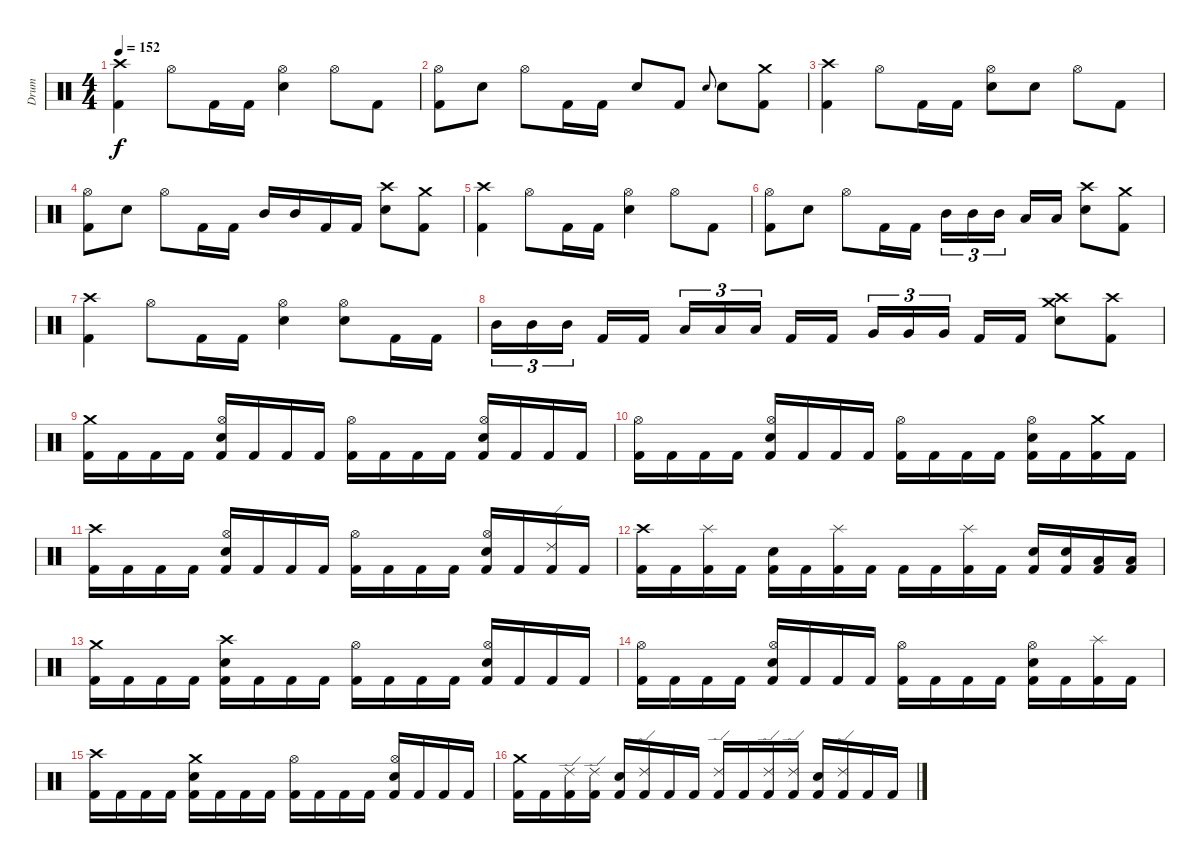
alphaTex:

\track ("Drum" "Drum") {instrument percussion}
\staff {score}
\articulation defaults
\ts (4 4)
\tempo 152
\clef neutral
\ks c
("Crash high (hit)" "Kick (hit) 2").4{dy f} "Hi-Hat (open)".8 "Kick (hit) 2".16 "Kick (hit) 2".16 ("Hi-Hat (open)" "Snare (hit) 2").4 "Hi-Hat (open)".8 "Kick (hit) 2".8 |
("Hi-Hat (open)" "Kick (hit) 2").8 "Snare (hit) 2".8 "Hi-Hat (open)".8 "Kick (hit) 2".16 "Kick (hit) 2".16 "Snare (hit) 2".8 "Kick (hit) 2".8 "Snare (hit) 2".8{gr onbeat} "Snare (hit) 2".8 ("Crash medium (hit)" "Kick (hit) 2").8 |
("Crash high (hit)" "Kick (hit) 2").4 "Hi-Hat (open)".8 "Kick (hit) 2".16 "Kick (hit) 2".16 ("Hi-Hat (open)" "Snare (hit) 2").8 "Snare (hit) 2".8 "Hi-Hat (open)".8 "Kick (hit) 2".8 |
("Hi-Hat (open)" "Kick (hit) 2").8 "Snare (hit) 2".8 "Hi-Hat (open)".8 "Kick (hit) 2".16 "Kick (hit) 2".16 "Mid Tom (hit)".16 "Mid Tom (hit)".16 "Kick (hit) 2".16 "Kick (hit) 2".16 ("Crash high (hit)" "Snare (hit) 2").8 ("Crash medium (hit)" "Kick (hit) 2").8 |
("Crash high (hit)" "Kick (hit) 2").4 "Hi-Hat (open)".8 "Kick (hit) 2".16 "Kick (hit) 2".16 ("Hi-Hat (open)" "Snare (hit) 2").4 "Hi-Hat (open)".8 "Kick (hit) 2".8 |
("Hi-Hat (open)" "Kick (hit) 2").8 "Snare (hit) 2".8 "Hi-Hat (open)".8 "Kick (hit) 2".16 "Kick (hit) 2".16 "Mid Tom (hit)".16{tu (3 2)} "Mid Tom (hit)".16{tu (3 2)} "Mid Tom (hit)".16{tu (3 2) beam splitsecondary} "Low Tom (hit)".16 "Low Tom (hit)".16 ("Crash high (hit)" "Snare (hit) 2").8 ("Crash medium (hit)" "Kick (hit) 2").8 |
("Crash high (hit)" "Kick (hit) 2").4 "Hi-Hat (open)".8 "Kick (hit) 2".16 "Kick (hit) 2".16 ("Hi-Hat (open)" "Snare (hit) 2").4 ("Hi-Hat (open)" "Snare (hit) 2").8 "Kick (hit) 2".16 "Kick (hit) 2".16 |
"Mid Tom (hit)".16{tu (3 2)} "Mid Tom (hit)".16{tu (3 2)} "Mid Tom (hit)".16{tu (3 2) beam splitsecondary} "Kick (hit) 2".16 "Kick (hit) 2".16 "Low Tom (hit)".16{tu (3 2)} "Low Tom (hit)".16{tu (3 2)} "Low Tom (hit)".16{tu (3 2) beam splitsecondary} "Kick (hit) 2".16 "Kick (hit) 2".16 "Very Low Tom (hit)".16{tu (3 2)} "Very Low Tom (hit)".16{tu (3 2)} "Very Low Tom (hit)".16{tu (3 2) beam splitsecondary} "Kick (hit) 2".16 "Kick (hit) 2".16 ("Crash medium (hit)" "Crash high (hit)" "Snare (hit) 2").8 ("Crash high (hit)" "Kick (hit) 2").8 |
("Crash medium (hit)" "Kick (hit) 2").16 "Kick (hit) 2".16 "Kick (hit) 2".16 "Kick (hit) 2".16 ("Hi-Hat (open)" "Snare (hit) 2" "Kick (hit) 2").16 "Kick (hit) 2".16 "Kick (hit) 2".16 "Kick (hit) 2".16 ("Hi-Hat (open)" "Kick (hit) 2").16 "Kick (hit) 2".16 "Kick (hit) 2".16 "Kick (hit) 2".16 ("Hi-Hat (open)" "Snare (hit) 2" "Kick (hit) 2").16 "Kick (hit) 2".16 "Kick (hit) 2".16 "Kick (hit) 2".16 |
("Hi-Hat (open)" "Kick (hit) 2").16 "Kick (hit) 2".16 "Kick (hit) 2".16 "Kick (hit) 2".16 ("Hi-Hat (open)" "Snare (hit) 2" "Kick (hit) 2").16 "Kick (hit) 2".16 "Kick (hit) 2".16 "Kick (hit) 2".16 ("Hi-Hat (open)" "Kick (hit) 2").16 "Kick (hit) 2".16 "Kick (hit) 2".16 "Kick (hit) 2".16 ("Hi-Hat (open)" "Snare (hit) 2" "Kick (hit) 2").16 "Kick (hit) 2".16 ("Crash medium (hit)" "Kick (hit) 2").16 "Kick (hit) 2".16 |
("Crash high (hit)" "Kick (hit) 2").16 "Kick (hit) 2".16 "Kick (hit) 2".16 "Kick (hit) 2".16 ("Hi-Hat (open)" "Snare (hit) 2" "Kick (hit) 2").16 "Kick (hit) 2".16 "Kick (hit) 2".16 "Kick (hit) 2".16 ("Hi-Hat (open)" "Kick (hit) 2").16 "Kick (hit) 2".16 "Kick (hit) 2".16 "Kick (hit) 2".16 ("Hi-Hat (open)" "Snare (hit) 2" "Kick (hit) 2").16 "Kick (hit) 2".16 ("Ride (edge) 2" "Kick (hit) 2").16 "Kick (hit) 2".16 |
("Crash high (hit)" "Kick (hit) 2").16 "Kick (hit) 2".16 ("Splash (hit)" "Kick (hit) 2").16 "Kick (hit) 2".16 ("Snare (hit) 2" "Kick (hit) 2").16 "Kick (hit) 2".16 ("Splash (hit)" "Kick (hit) 2").16 "Kick (hit) 2".16 "Kick (hit) 2".16 "Kick (hit) 2".16 ("Splash (hit)" "Kick (hit) 2").16 "Kick (hit) 2".16 ("Snare (hit) 2" "Kick (hit) 2").16 ("Snare (hit) 2" "Kick (hit) 2").16 ("Low Tom (hit)" "Kick (hit) 2").16 ("Low Tom (hit)" "Kick (hit) 2").16 |
("Crash medium (hit)" "Kick (hit) 2").16 "Kick (hit) 2".16 "Kick (hit) 2".16 "Kick (hit) 2".16 ("Crash high (hit)" "Snare (hit) 2" "Kick (hit) 2").16 "Kick (hit) 2".16 "Kick (hit) 2".16 "Kick (hit) 2".16 ("Hi-Hat (open)" "Kick (hit) 2").16 "Kick (hit) 2".16 "Kick (hit) 2".16 "Kick (hit) 2".16 ("Hi-Hat (open)" "Snare (hit) 2" "Kick (hit) 2").16 "Kick (hit) 2".16 "Kick (hit) 2".16 "Kick (hit) 2".16 |
("Hi-Hat (open)" "Kick (hit) 2").16 "Kick (hit) 2".16 "Kick (hit) 2".16 "Kick (hit) 2".16 ("Hi-Hat (open)" "Snare (hit) 2" "Kick (hit) 2").16 "Kick (hit) 2".16 "Kick (hit) 2".16 "Kick (hit) 2".16 ("Hi-Hat (open)" "Kick (hit) 2").16 "Kick (hit) 2".16 "Kick (hit) 2".16 "Kick (hit) 2".16 ("Hi-Hat (open)" "Snare (hit) 2" "Kick (hit) 2").16 "Kick (hit) 2".16 ("Splash (hit)" "Kick (hit) 2").16 "Kick (hit) 2".16 |
("Crash high (hit)" "Kick (hit) 2").16 "Kick (hit) 2".16 "Kick (hit) 2".16 "Kick (hit) 2".16 ("Crash medium (hit)" "Snare (hit) 2" "Kick (hit) 2").16 "Kick (hit) 2".16 "Kick (hit) 2".16 "Kick (hit) 2".16 ("Hi-Hat (open)" "Kick (hit) 2").16 "Kick (hit) 2".16 "Kick (hit) 2".16 "Kick (hit) 2".16 ("Hi-Hat (open)" "Snare (hit) 2" "Kick (hit) 2").16 "Kick (hit) 2".16 "Kick (hit) 2".16 "Kick (hit) 2".16 |
("Crash medium (hit)" "Kick (hit) 2").16 "Kick (hit) 2".16 ("Ride (edge) 2" "Kick (hit) 2").16 ("Ride (edge) 2" "Kick (hit) 2").16 ("Snare (hit) 2" "Kick (hit) 2").16 ("Ride (edge) 2" "Kick (hit) 2").16 "Kick (hit) 2".16 "Kick (hit) 2".16 ("Ride (edge) 2" "Kick (hit) 2").16 "Kick (hit) 2".16 ("Ride (edge) 2" "Kick (hit) 2").16 ("Ride (edge) 2" "Kick (hit) 2").16 ("Snare (hit) 2" "Kick (hit) 2").16 ("Ride (edge) 2" "Kick (hit) 2").16 "Kick (hit) 2".16 "Kick (hit) 2".16
